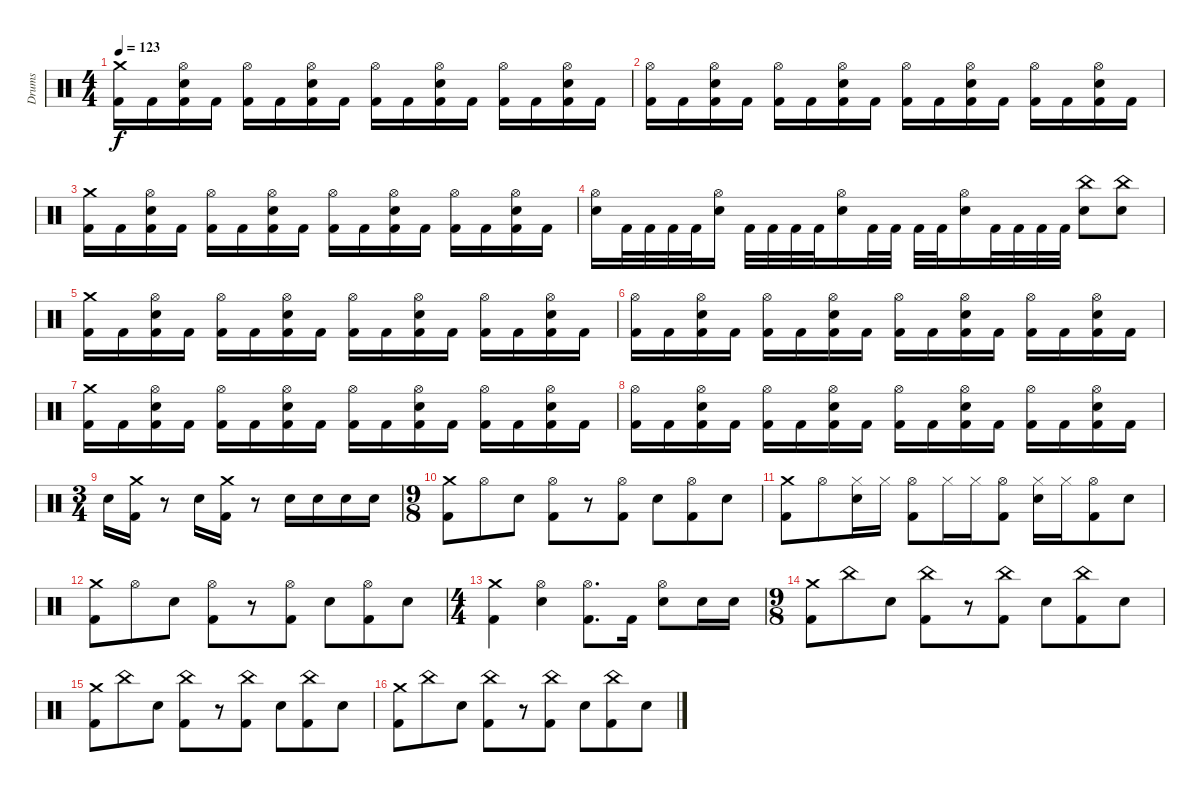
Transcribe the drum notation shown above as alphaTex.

\track ("Drums" "Drums") {instrument percussion}
\staff {score}
\articulation defaults
\ts (4 4)
\tempo 123
\clef neutral
\ks c
("Kick (hit) 2" "Crash medium (hit)").16{dy f} "Kick (hit) 2".16 ("Hi-Hat (open)" "Kick (hit) 2" "Electric Snare (hit)").16 "Kick (hit) 2".16 ("Kick (hit) 2" "Hi-Hat (open)").16 "Kick (hit) 2".16 ("Kick (hit) 2" "Electric Snare (hit)" "Hi-Hat (open)").16 "Kick (hit) 2".16 ("Kick (hit) 2" "Hi-Hat (open)").16 "Kick (hit) 2".16 ("Kick (hit) 2" "Electric Snare (hit)" "Hi-Hat (open)").16 "Kick (hit) 2".16 ("Kick (hit) 2" "Hi-Hat (open)").16 "Kick (hit) 2".16 ("Kick (hit) 2" "Electric Snare (hit)" "Hi-Hat (open)").16 "Kick (hit) 2".16 |
("Hi-Hat (open)" "Kick (hit) 2").16 "Kick (hit) 2".16 ("Hi-Hat (open)" "Kick (hit) 2" "Electric Snare (hit)").16 "Kick (hit) 2".16 ("Kick (hit) 2" "Hi-Hat (open)").16 "Kick (hit) 2".16 ("Kick (hit) 2" "Electric Snare (hit)" "Hi-Hat (open)").16 "Kick (hit) 2".16 ("Kick (hit) 2" "Hi-Hat (open)").16 "Kick (hit) 2".16 ("Kick (hit) 2" "Electric Snare (hit)" "Hi-Hat (open)").16 "Kick (hit) 2".16 ("Kick (hit) 2" "Hi-Hat (open)").16 "Kick (hit) 2".16 ("Kick (hit) 2" "Electric Snare (hit)" "Hi-Hat (open)").16 "Kick (hit) 2".16 |
("Kick (hit) 2" "Crash medium (hit)").16 "Kick (hit) 2".16 ("Hi-Hat (open)" "Kick (hit) 2" "Electric Snare (hit)").16 "Kick (hit) 2".16 ("Kick (hit) 2" "Hi-Hat (open)").16 "Kick (hit) 2".16 ("Kick (hit) 2" "Electric Snare (hit)" "Hi-Hat (open)").16 "Kick (hit) 2".16 ("Kick (hit) 2" "Hi-Hat (open)").16 "Kick (hit) 2".16 ("Kick (hit) 2" "Electric Snare (hit)" "Hi-Hat (open)").16 "Kick (hit) 2".16 ("Kick (hit) 2" "Hi-Hat (open)").16 "Kick (hit) 2".16 ("Kick (hit) 2" "Electric Snare (hit)" "Hi-Hat (open)").16 "Kick (hit) 2".16 |
("Electric Snare (hit)" "Hi-Hat (open)").16 "Kick (hit) 2".32 "Kick (hit) 2".32 "Kick (hit) 2".32 "Kick (hit) 2".32 ("Hi-Hat (open)" "Electric Snare (hit)").16 "Kick (hit) 2".32 "Kick (hit) 2".32 "Kick (hit) 2".32 "Kick (hit) 2".32 ("Hi-Hat (open)" "Electric Snare (hit)").16 "Kick (hit) 2".32 "Kick (hit) 2".32 "Kick (hit) 2".32 "Kick (hit) 2".32 ("Hi-Hat (open)" "Electric Snare (hit)").16 "Kick (hit) 2".32 "Kick (hit) 2".32 "Kick (hit) 2".32 "Kick (hit) 2".32 ("China (hit)" "Electric Snare (hit)").8 ("China (hit)" "Electric Snare (hit)").8 |
("Kick (hit) 2" "Crash medium (hit)").16 "Kick (hit) 2".16 ("Hi-Hat (open)" "Kick (hit) 2" "Electric Snare (hit)").16 "Kick (hit) 2".16 ("Kick (hit) 2" "Hi-Hat (open)").16 "Kick (hit) 2".16 ("Kick (hit) 2" "Electric Snare (hit)" "Hi-Hat (open)").16 "Kick (hit) 2".16 ("Kick (hit) 2" "Hi-Hat (open)").16 "Kick (hit) 2".16 ("Kick (hit) 2" "Electric Snare (hit)" "Hi-Hat (open)").16 "Kick (hit) 2".16 ("Kick (hit) 2" "Hi-Hat (open)").16 "Kick (hit) 2".16 ("Kick (hit) 2" "Electric Snare (hit)" "Hi-Hat (open)").16 "Kick (hit) 2".16 |
("Hi-Hat (open)" "Kick (hit) 2").16 "Kick (hit) 2".16 ("Hi-Hat (open)" "Kick (hit) 2" "Electric Snare (hit)").16 "Kick (hit) 2".16 ("Kick (hit) 2" "Hi-Hat (open)").16 "Kick (hit) 2".16 ("Kick (hit) 2" "Electric Snare (hit)" "Hi-Hat (open)").16 "Kick (hit) 2".16 ("Kick (hit) 2" "Hi-Hat (open)").16 "Kick (hit) 2".16 ("Kick (hit) 2" "Electric Snare (hit)" "Hi-Hat (open)").16 "Kick (hit) 2".16 ("Kick (hit) 2" "Hi-Hat (open)").16 "Kick (hit) 2".16 ("Kick (hit) 2" "Electric Snare (hit)" "Hi-Hat (open)").16 "Kick (hit) 2".16 |
("Kick (hit) 2" "Crash medium (hit)").16 "Kick (hit) 2".16 ("Hi-Hat (open)" "Kick (hit) 2" "Electric Snare (hit)").16 "Kick (hit) 2".16 ("Kick (hit) 2" "Hi-Hat (open)").16 "Kick (hit) 2".16 ("Kick (hit) 2" "Electric Snare (hit)" "Hi-Hat (open)").16 "Kick (hit) 2".16 ("Kick (hit) 2" "Hi-Hat (open)").16 "Kick (hit) 2".16 ("Kick (hit) 2" "Electric Snare (hit)" "Hi-Hat (open)").16 "Kick (hit) 2".16 ("Kick (hit) 2" "Hi-Hat (open)").16 "Kick (hit) 2".16 ("Kick (hit) 2" "Electric Snare (hit)" "Hi-Hat (open)").16 "Kick (hit) 2".16 |
("Hi-Hat (open)" "Kick (hit) 2").16 "Kick (hit) 2".16 ("Hi-Hat (open)" "Kick (hit) 2" "Electric Snare (hit)").16 "Kick (hit) 2".16 ("Kick (hit) 2" "Hi-Hat (open)").16 "Kick (hit) 2".16 ("Kick (hit) 2" "Electric Snare (hit)" "Hi-Hat (open)").16 "Kick (hit) 2".16 ("Kick (hit) 2" "Hi-Hat (open)").16 "Kick (hit) 2".16 ("Kick (hit) 2" "Electric Snare (hit)" "Hi-Hat (open)").16 "Kick (hit) 2".16 ("Kick (hit) 2" "Hi-Hat (open)").16 "Kick (hit) 2".16 ("Kick (hit) 2" "Electric Snare (hit)" "Hi-Hat (open)").16 "Kick (hit) 2".16 |
\ts (3 4)
"Electric Snare (hit)".16 ("Crash medium (hit)" "Kick (hit) 2").16 r.8 "Electric Snare (hit)".16 ("Crash medium (hit)" "Kick (hit) 2").16 r.8 "Electric Snare (hit)".16 "Electric Snare (hit)".16 "Electric Snare (hit)".16 "Electric Snare (hit)".16 |
\ts (9 8)
("Kick (hit) 2" "Crash medium (hit)").8 "Hi-Hat (open)".8 "Electric Snare (hit)".8 ("Hi-Hat (open)" "Kick (hit) 2").8 r.8 ("Hi-Hat (open)" "Kick (hit) 2").8 "Electric Snare (hit)".8 ("Hi-Hat (open)" "Kick (hit) 2").8 "Electric Snare (hit)".8 |
("Kick (hit) 2" "Crash medium (hit)").8 "Hi-Hat (open)".8 ("Hi-Hat (closed)" "Electric Snare (hit)").16 "Hi-Hat (closed)".16 ("Hi-Hat (open)" "Kick (hit) 2").8 "Hi-Hat (closed)".16 "Hi-Hat (closed)".16 ("Hi-Hat (open)" "Kick (hit) 2").8 ("Hi-Hat (closed)" "Electric Snare (hit)").16 "Hi-Hat (closed)".16 ("Hi-Hat (open)" "Kick (hit) 2").8 "Electric Snare (hit)".8 |
("Kick (hit) 2" "Crash medium (hit)").8 "Hi-Hat (open)".8 "Electric Snare (hit)".8 ("Hi-Hat (open)" "Kick (hit) 2").8 r.8 ("Hi-Hat (open)" "Kick (hit) 2").8 "Electric Snare (hit)".8 ("Hi-Hat (open)" "Kick (hit) 2").8 "Electric Snare (hit)".8 |
\ts (4 4)
("Kick (hit) 2" "Crash medium (hit)").4 ("Electric Snare (hit)" "Hi-Hat (open)").4 ("Kick (hit) 2" "Hi-Hat (open)").8{d} "Kick (hit) 2".16 ("Hi-Hat (open)" "Electric Snare (hit)").8 "Electric Snare (hit)".16 "Electric Snare (hit)".16 |
\ts (9 8)
("Kick (hit) 2" "Crash medium (hit)").8 "China (hit)".8 "Electric Snare (hit)".8 ("China (hit)" "Kick (hit) 2").8 r.8 ("China (hit)" "Kick (hit) 2").8 "Electric Snare (hit)".8 ("China (hit)" "Kick (hit) 2").8 "Electric Snare (hit)".8 |
("Kick (hit) 2" "Crash medium (hit)").8 "China (hit)".8 "Electric Snare (hit)".8 ("China (hit)" "Kick (hit) 2").8 r.8 ("China (hit)" "Kick (hit) 2").8 "Electric Snare (hit)".8 ("China (hit)" "Kick (hit) 2").8 "Electric Snare (hit)".8 |
("Kick (hit) 2" "Crash medium (hit)").8 "China (hit)".8 "Electric Snare (hit)".8 ("China (hit)" "Kick (hit) 2").8 r.8 ("China (hit)" "Kick (hit) 2").8 "Electric Snare (hit)".8 ("China (hit)" "Kick (hit) 2").8 "Electric Snare (hit)".8
